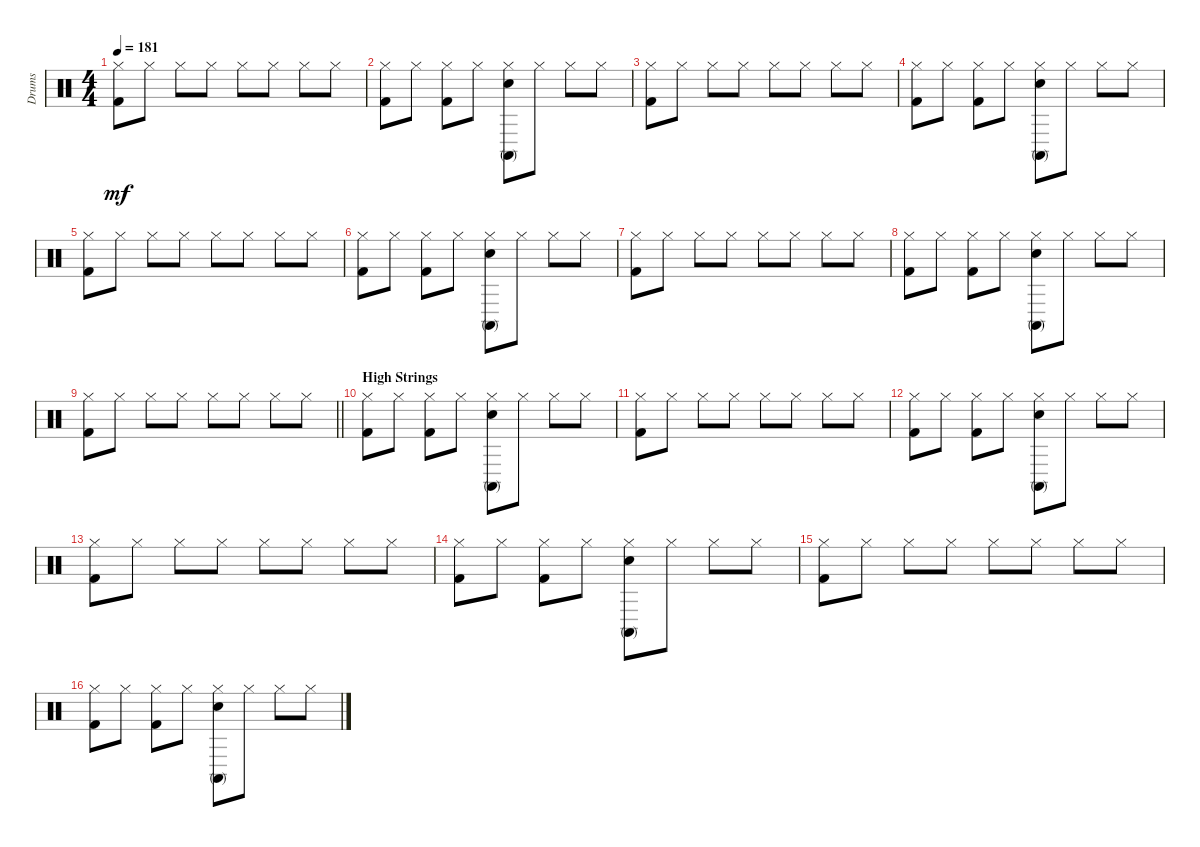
\track ("Drums" "Drums") {instrument percussion}
\staff {score}
\articulation defaults
\ts (4 4)
\tempo 181
\clef neutral
\ks c
("Hi-Hat (closed)" "Kick (hit) 2").8{dy mf} "Hi-Hat (closed)".8 "Hi-Hat (closed)".8 "Hi-Hat (closed)".8 "Hi-Hat (closed)".8 "Hi-Hat (closed)".8 "Hi-Hat (closed)".8 "Hi-Hat (closed)".8 |
("Hi-Hat (closed)" "Kick (hit) 2").8 "Hi-Hat (closed)".8 ("Hi-Hat (closed)" "Kick (hit) 2").8 "Hi-Hat (closed)".8 ("Hi-Hat (closed)" "Conga high (mute)" "Electric Snare (hit)").8 "Hi-Hat (closed)".8 "Hi-Hat (closed)".8 "Hi-Hat (closed)".8 |
("Hi-Hat (closed)" "Kick (hit) 2").8 "Hi-Hat (closed)".8 "Hi-Hat (closed)".8 "Hi-Hat (closed)".8 "Hi-Hat (closed)".8 "Hi-Hat (closed)".8 "Hi-Hat (closed)".8 "Hi-Hat (closed)".8 |
("Hi-Hat (closed)" "Kick (hit) 2").8 "Hi-Hat (closed)".8 ("Hi-Hat (closed)" "Kick (hit) 2").8 "Hi-Hat (closed)".8 ("Hi-Hat (closed)" "Conga high (mute)" "Electric Snare (hit)").8 "Hi-Hat (closed)".8 "Hi-Hat (closed)".8 "Hi-Hat (closed)".8 |
("Hi-Hat (closed)" "Kick (hit) 2").8 "Hi-Hat (closed)".8 "Hi-Hat (closed)".8 "Hi-Hat (closed)".8 "Hi-Hat (closed)".8 "Hi-Hat (closed)".8 "Hi-Hat (closed)".8 "Hi-Hat (closed)".8 |
("Hi-Hat (closed)" "Kick (hit) 2").8 "Hi-Hat (closed)".8 ("Hi-Hat (closed)" "Kick (hit) 2").8 "Hi-Hat (closed)".8 ("Hi-Hat (closed)" "Conga high (mute)" "Electric Snare (hit)").8 "Hi-Hat (closed)".8 "Hi-Hat (closed)".8 "Hi-Hat (closed)".8 |
("Hi-Hat (closed)" "Kick (hit) 2").8 "Hi-Hat (closed)".8 "Hi-Hat (closed)".8 "Hi-Hat (closed)".8 "Hi-Hat (closed)".8 "Hi-Hat (closed)".8 "Hi-Hat (closed)".8 "Hi-Hat (closed)".8 |
("Hi-Hat (closed)" "Kick (hit) 2").8 "Hi-Hat (closed)".8 ("Hi-Hat (closed)" "Kick (hit) 2").8 "Hi-Hat (closed)".8 ("Hi-Hat (closed)" "Conga high (mute)" "Electric Snare (hit)").8 "Hi-Hat (closed)".8 "Hi-Hat (closed)".8 "Hi-Hat (closed)".8 |
\barLineRight lightlight
("Hi-Hat (closed)" "Kick (hit) 2").8 "Hi-Hat (closed)".8 "Hi-Hat (closed)".8 "Hi-Hat (closed)".8 "Hi-Hat (closed)".8 "Hi-Hat (closed)".8 "Hi-Hat (closed)".8 "Hi-Hat (closed)".8 |
\section ("" "High Strings")
("Hi-Hat (closed)" "Kick (hit) 2").8 "Hi-Hat (closed)".8 ("Hi-Hat (closed)" "Kick (hit) 2").8 "Hi-Hat (closed)".8 ("Hi-Hat (closed)" "Conga high (mute)" "Electric Snare (hit)").8 "Hi-Hat (closed)".8 "Hi-Hat (closed)".8 "Hi-Hat (closed)".8 |
("Hi-Hat (closed)" "Kick (hit) 2").8 "Hi-Hat (closed)".8 "Hi-Hat (closed)".8 "Hi-Hat (closed)".8 "Hi-Hat (closed)".8 "Hi-Hat (closed)".8 "Hi-Hat (closed)".8 "Hi-Hat (closed)".8 |
("Hi-Hat (closed)" "Kick (hit) 2").8 "Hi-Hat (closed)".8 ("Hi-Hat (closed)" "Kick (hit) 2").8 "Hi-Hat (closed)".8 ("Hi-Hat (closed)" "Conga high (mute)" "Electric Snare (hit)").8 "Hi-Hat (closed)".8 "Hi-Hat (closed)".8 "Hi-Hat (closed)".8 |
("Hi-Hat (closed)" "Kick (hit) 2").8 "Hi-Hat (closed)".8 "Hi-Hat (closed)".8 "Hi-Hat (closed)".8 "Hi-Hat (closed)".8 "Hi-Hat (closed)".8 "Hi-Hat (closed)".8 "Hi-Hat (closed)".8 |
("Hi-Hat (closed)" "Kick (hit) 2").8 "Hi-Hat (closed)".8 ("Hi-Hat (closed)" "Kick (hit) 2").8 "Hi-Hat (closed)".8 ("Hi-Hat (closed)" "Conga high (mute)" "Electric Snare (hit)").8 "Hi-Hat (closed)".8 "Hi-Hat (closed)".8 "Hi-Hat (closed)".8 |
("Hi-Hat (closed)" "Kick (hit) 2").8 "Hi-Hat (closed)".8 "Hi-Hat (closed)".8 "Hi-Hat (closed)".8 "Hi-Hat (closed)".8 "Hi-Hat (closed)".8 "Hi-Hat (closed)".8 "Hi-Hat (closed)".8 |
("Hi-Hat (closed)" "Kick (hit) 2").8 "Hi-Hat (closed)".8 ("Hi-Hat (closed)" "Kick (hit) 2").8 "Hi-Hat (closed)".8 ("Hi-Hat (closed)" "Conga high (mute)" "Electric Snare (hit)").8 "Hi-Hat (closed)".8 "Hi-Hat (closed)".8 "Hi-Hat (closed)".8
